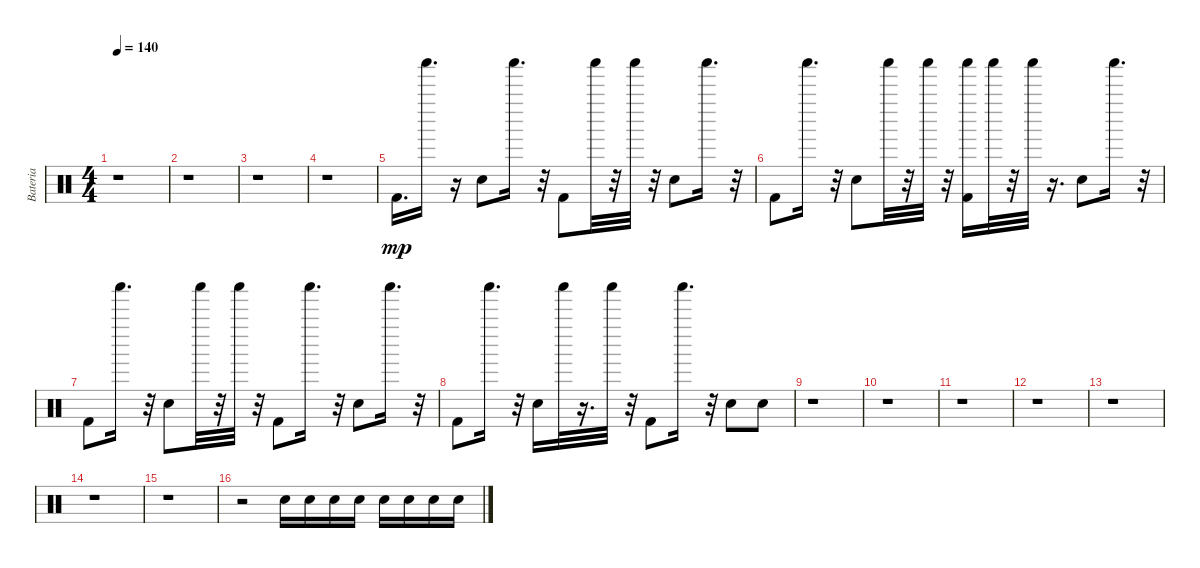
\track ("Bateria" "Bateria") {instrument percussion}
\staff {score}
\articulation defaults
\ts (4 4)
\tempo 140
\clef neutral
\ks c
r.1{dy mp} |
r.1 |
r.1 |
r.1 |
"Kick (hit) 2".16{d} "Shaker (hit)".16{d} r.16 "Electric Snare (hit)".8 "Shaker (hit)".16{d} r.32 "Kick (hit) 2".8 "Shaker (hit)".32 r.32 "Shaker (hit)".32 r.32 "Electric Snare (hit)".8 "Shaker (hit)".16{d} r.32 |
"Kick (hit) 2".8 "Shaker (hit)".16{d} r.32 "Electric Snare (hit)".8 "Shaker (hit)".32 r.32 "Shaker (hit)".32 r.32 ("Kick (hit) 2" "Shaker (hit)").16 "Shaker (hit)".32 r.32 "Shaker (hit)".32 r.16{d} "Electric Snare (hit)".8 "Shaker (hit)".16{d} r.32 |
"Kick (hit) 2".8 "Shaker (hit)".16{d} r.32 "Electric Snare (hit)".8 "Shaker (hit)".32 r.32 "Shaker (hit)".32 r.32 "Kick (hit) 2".8 "Shaker (hit)".16{d} r.32 "Electric Snare (hit)".8 "Shaker (hit)".16{d} r.32 |
"Kick (hit) 2".8 "Shaker (hit)".16{d} r.32 "Electric Snare (hit)".16 "Shaker (hit)".32 r.16{d} "Shaker (hit)".32 r.32 "Kick (hit) 2".8 "Shaker (hit)".16{d} r.32 "Electric Snare (hit)".8 "Electric Snare (hit)".8 |
r.1 |
r.1 |
r.1 |
r.1 |
r.1 |
r.1 |
r.1 |
r.2 "Electric Snare (hit)".16 "Electric Snare (hit)".16 "Electric Snare (hit)".16 "Electric Snare (hit)".16 "Electric Snare (hit)".16 "Electric Snare (hit)".16 "Electric Snare (hit)".16 "Electric Snare (hit)".16
